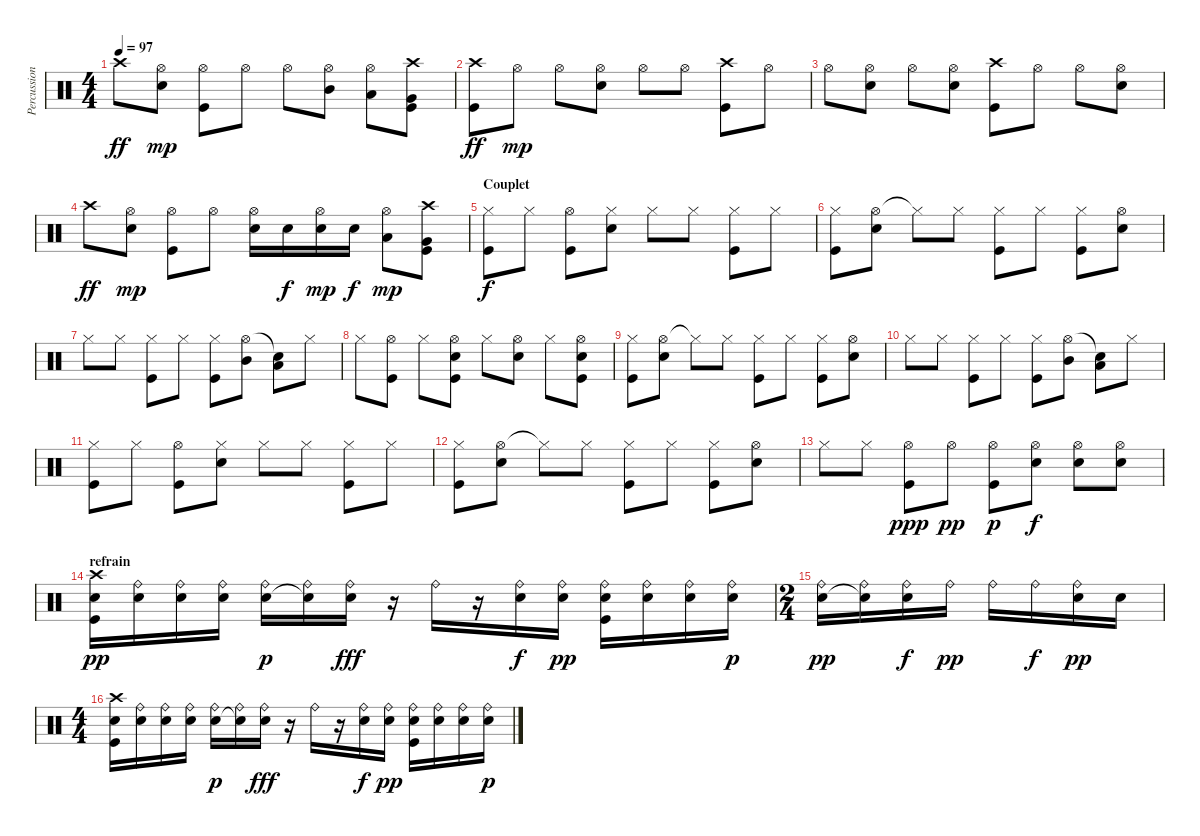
\track ("Percussions (Etn)" "Percussion") {instrument percussion}
\staff {score}
\articulation defaults
\ts (4 4)
\tempo 97
\clef neutral
\ks c "Crash high (hit)".8{dy ff}
("Hi-Hat (open)" "Electric Snare (hit)").8{dy mp} ("Hi-Hat (open)" "Kick (hit)").8 "Hi-Hat (open)".8 "Hi-Hat (open)".8 ("Hi-Hat (open)" "Mid Tom (hit)").8 ("Hi-Hat (open)" "Low Tom (hit)").8 ("Crash high (hit)" "Very Low Tom (hit)" "Kick (hit)").8 |
("Crash high (hit)" "Kick (hit)").8{dy ff} "Hi-Hat (open)".8{dy mp} "Hi-Hat (open)".8 ("Hi-Hat (open)" "Electric Snare (hit)").8 "Hi-Hat (open)".8 "Hi-Hat (open)".8 ("Crash high (hit)" "Kick (hit)").8 "Hi-Hat (open)".8 |
"Hi-Hat (open)".8 ("Hi-Hat (open)" "Electric Snare (hit)").8 "Hi-Hat (open)".8 ("Hi-Hat (open)" "Electric Snare (hit)").8 ("Crash high (hit)" "Kick (hit)").8 "Hi-Hat (open)".8 "Hi-Hat (open)".8 ("Hi-Hat (open)" "Electric Snare (hit)").8 |
\section ("" "")
"Crash high (hit)".8{dy ff} ("Hi-Hat (open)" "Electric Snare (hit)").8{dy mp} ("Hi-Hat (open)" "Kick (hit)").8 "Hi-Hat (open)".8 ("Hi-Hat (open)" "Electric Snare (hit)").16 "Electric Snare (hit)".16{dy f} ("Hi-Hat (open)" "Electric Snare (hit)").16{dy mp} "Electric Snare (hit)".16{dy f} ("Hi-Hat (open)" "Low Tom (hit)").8{dy mp} ("Crash high (hit)" "Very Low Tom (hit)" "Kick (hit)").8 |
\section ("" "Couplet")
("Hi-Hat (closed)" "Kick (hit)").8{dy f} "Hi-Hat (closed)".8 ("Hi-Hat (open)" "Kick (hit)").8 ("Hi-Hat (closed)" "Electric Snare (hit)").8 "Hi-Hat (closed)".8 "Hi-Hat (closed)".8 ("Hi-Hat (closed)" "Kick (hit)").8 "Hi-Hat (closed)".8 |
("Hi-Hat (closed)" "Kick (hit)").8 ("Hi-Hat (open)" "Electric Snare (hit)").8 "Hi-Hat (closed)"{t}.8 "Hi-Hat (closed)".8 ("Hi-Hat (closed)" "Kick (hit)").8 "Hi-Hat (closed)".8 ("Hi-Hat (closed)" "Kick (hit)").8 ("Hi-Hat (open)" "Electric Snare (hit)").8 |
"Hi-Hat (closed)".8 "Hi-Hat (closed)".8 ("Hi-Hat (closed)" "Kick (hit)").8 "Hi-Hat (closed)".8 ("Hi-Hat (closed)" "Kick (hit)").8 ("Hi-Hat (open)" "Mid Tom (hit)").8 ("Snare (hit)"{t} "Low Tom (hit)").8 "Hi-Hat (closed)".8 |
"Hi-Hat (closed)".8 ("Hi-Hat (open)" "Kick (hit)").8 "Hi-Hat (closed)".8 ("Hi-Hat (open)" "Electric Snare (hit)" "Kick (hit)").8 "Hi-Hat (closed)".8 ("Hi-Hat (open)" "Electric Snare (hit)").8 "Hi-Hat (closed)".8 ("Hi-Hat (open)" "Electric Snare (hit)" "Kick (hit)").8 |
("Hi-Hat (closed)" "Kick (hit)").8 ("Hi-Hat (open)" "Electric Snare (hit)").8 "Hi-Hat (closed)"{t}.8 "Hi-Hat (closed)".8 ("Hi-Hat (closed)" "Kick (hit)").8 "Hi-Hat (closed)".8 ("Hi-Hat (closed)" "Kick (hit)").8 ("Hi-Hat (open)" "Electric Snare (hit)").8 |
"Hi-Hat (closed)".8 "Hi-Hat (closed)".8 ("Hi-Hat (closed)" "Kick (hit)").8 "Hi-Hat (closed)".8 ("Hi-Hat (closed)" "Kick (hit)").8 ("Hi-Hat (open)" "Mid Tom (hit)").8 ("Snare (hit)"{t} "Low Tom (hit)").8 "Hi-Hat (closed)".8 |
("Hi-Hat (closed)" "Kick (hit)").8 "Hi-Hat (closed)".8 ("Hi-Hat (open)" "Kick (hit)").8 ("Hi-Hat (closed)" "Electric Snare (hit)").8 "Hi-Hat (closed)".8 "Hi-Hat (closed)".8 ("Hi-Hat (closed)" "Kick (hit)").8 "Hi-Hat (closed)".8 |
("Hi-Hat (closed)" "Kick (hit)").8 ("Hi-Hat (open)" "Electric Snare (hit)").8 "Hi-Hat (closed)"{t}.8 "Hi-Hat (closed)".8 ("Hi-Hat (closed)" "Kick (hit)").8 "Hi-Hat (closed)".8 ("Hi-Hat (closed)" "Kick (hit)").8 ("Hi-Hat (open)" "Electric Snare (hit)").8 |
\section ("" "")
"Hi-Hat (closed)".8 "Hi-Hat (closed)".8 ("Hi-Hat (open)" "Kick (hit)").8{dy ppp} "Hi-Hat (open)".8{dy pp} ("Hi-Hat (open)" "Kick (hit)").8{dy p} ("Hi-Hat (open)" "Electric Snare (hit)").8{dy f} ("Hi-Hat (open)" "Electric Snare (hit)").8 ("Hi-Hat (open)" "Electric Snare (hit)").8 |
\section ("" "refrain")
("Crash high (hit)" "Electric Snare (hit)" "Kick (hit)").16{dy pp} ("Ride (bell)" "Electric Snare (hit)").16 ("Ride (bell)" "Electric Snare (hit)").16 ("Ride (bell)" "Electric Snare (hit)").16 ("Ride (bell)" "Electric Snare (hit)").16{dy p} ("Ride (bell)" "Snare (hit)"{t}).16 ("Ride (bell)" "Electric Snare (hit)").16{dy fff} r.16 "Ride (bell)".16 r.16 ("Ride (bell)" "Electric Snare (hit)").16{dy f} ("Ride (bell)" "Electric Snare (hit)").16{dy pp} ("Ride (bell)" "Electric Snare (hit)" "Kick (hit)").16 ("Ride (bell)" "Electric Snare (hit)").16 ("Ride (bell)" "Electric Snare (hit)").16 ("Ride (bell)" "Electric Snare (hit)").16{dy p} |
\ts (2 4)
("Ride (bell)" "Electric Snare (hit)").16{dy pp} ("Ride (bell)" "Snare (hit)"{t}).16 ("Ride (bell)" "Electric Snare (hit)").16{dy f} "Ride (bell)".16{dy pp} "Ride (bell)".16 "Ride (bell)".16{dy f} ("Ride (bell)" "Electric Snare (hit)").16{dy pp} "Electric Snare (hit)".16 |
\ts (4 4)
("Crash high (hit)" "Electric Snare (hit)" "Kick (hit)").16 ("Ride (bell)" "Electric Snare (hit)").16 ("Ride (bell)" "Electric Snare (hit)").16 ("Ride (bell)" "Electric Snare (hit)").16 ("Ride (bell)" "Electric Snare (hit)").16{dy p} ("Ride (bell)" "Snare (hit)"{t}).16 ("Ride (bell)" "Electric Snare (hit)").16{dy fff} r.16 "Ride (bell)".16 r.16 ("Ride (bell)" "Electric Snare (hit)").16{dy f} ("Ride (bell)" "Electric Snare (hit)").16{dy pp} ("Ride (bell)" "Electric Snare (hit)" "Kick (hit)").16 ("Ride (bell)" "Electric Snare (hit)").16 ("Ride (bell)" "Electric Snare (hit)").16 ("Ride (bell)" "Electric Snare (hit)").16{dy p}
